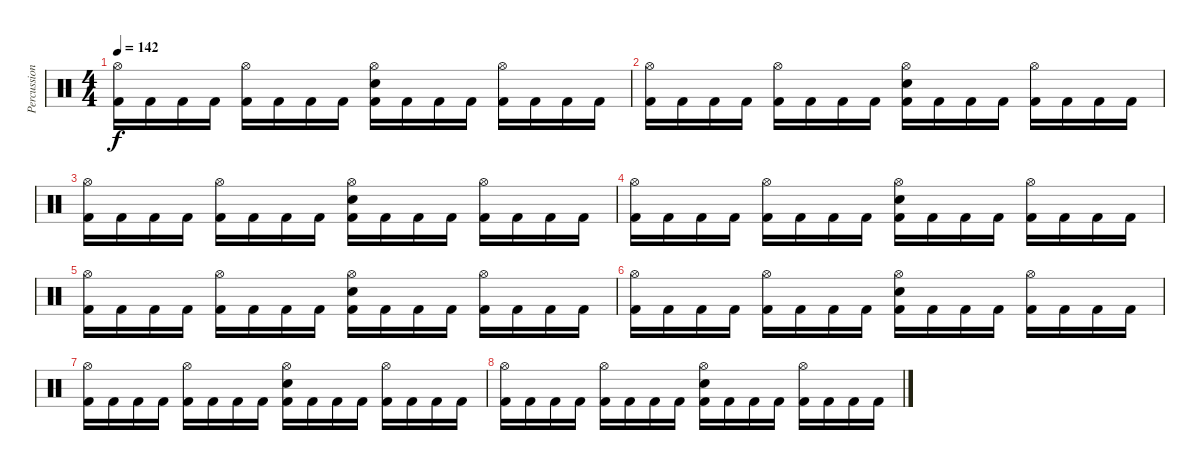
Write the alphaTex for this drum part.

\track ("Percussion" "Percussion") {instrument percussion}
\staff {score}
\articulation defaults
\ts (4 4)
\tempo 142
\clef neutral
\ks c
("Hi-Hat (open)" "Kick (hit) 2").16{dy f} "Kick (hit) 2".16 "Kick (hit) 2".16 "Kick (hit) 2".16 ("Hi-Hat (open)" "Kick (hit) 2").16 "Kick (hit) 2".16 "Kick (hit) 2".16 "Kick (hit) 2".16 ("Hi-Hat (open)" "Electric Snare (hit)" "Kick (hit) 2").16 "Kick (hit) 2".16 "Kick (hit) 2".16 "Kick (hit) 2".16 ("Hi-Hat (open)" "Kick (hit) 2").16 "Kick (hit) 2".16 "Kick (hit) 2".16 "Kick (hit) 2".16 |
("Hi-Hat (open)" "Kick (hit) 2").16 "Kick (hit) 2".16 "Kick (hit) 2".16 "Kick (hit) 2".16 ("Hi-Hat (open)" "Kick (hit) 2").16 "Kick (hit) 2".16 "Kick (hit) 2".16 "Kick (hit) 2".16 ("Hi-Hat (open)" "Electric Snare (hit)" "Kick (hit) 2").16 "Kick (hit) 2".16 "Kick (hit) 2".16 "Kick (hit) 2".16 ("Hi-Hat (open)" "Kick (hit) 2").16 "Kick (hit) 2".16 "Kick (hit) 2".16 "Kick (hit) 2".16 |
("Hi-Hat (open)" "Kick (hit) 2").16 "Kick (hit) 2".16 "Kick (hit) 2".16 "Kick (hit) 2".16 ("Hi-Hat (open)" "Kick (hit) 2").16 "Kick (hit) 2".16 "Kick (hit) 2".16 "Kick (hit) 2".16 ("Hi-Hat (open)" "Electric Snare (hit)" "Kick (hit) 2").16 "Kick (hit) 2".16 "Kick (hit) 2".16 "Kick (hit) 2".16 ("Hi-Hat (open)" "Kick (hit) 2").16 "Kick (hit) 2".16 "Kick (hit) 2".16 "Kick (hit) 2".16 |
("Hi-Hat (open)" "Kick (hit) 2").16 "Kick (hit) 2".16 "Kick (hit) 2".16 "Kick (hit) 2".16 ("Hi-Hat (open)" "Kick (hit) 2").16 "Kick (hit) 2".16 "Kick (hit) 2".16 "Kick (hit) 2".16 ("Hi-Hat (open)" "Electric Snare (hit)" "Kick (hit) 2").16 "Kick (hit) 2".16 "Kick (hit) 2".16 "Kick (hit) 2".16 ("Hi-Hat (open)" "Kick (hit) 2").16 "Kick (hit) 2".16 "Kick (hit) 2".16 "Kick (hit) 2".16 |
("Hi-Hat (open)" "Kick (hit) 2").16 "Kick (hit) 2".16 "Kick (hit) 2".16 "Kick (hit) 2".16 ("Hi-Hat (open)" "Kick (hit) 2").16 "Kick (hit) 2".16 "Kick (hit) 2".16 "Kick (hit) 2".16 ("Hi-Hat (open)" "Electric Snare (hit)" "Kick (hit) 2").16 "Kick (hit) 2".16 "Kick (hit) 2".16 "Kick (hit) 2".16 ("Hi-Hat (open)" "Kick (hit) 2").16 "Kick (hit) 2".16 "Kick (hit) 2".16 "Kick (hit) 2".16 |
("Hi-Hat (open)" "Kick (hit) 2").16 "Kick (hit) 2".16 "Kick (hit) 2".16 "Kick (hit) 2".16 ("Hi-Hat (open)" "Kick (hit) 2").16 "Kick (hit) 2".16 "Kick (hit) 2".16 "Kick (hit) 2".16 ("Hi-Hat (open)" "Electric Snare (hit)" "Kick (hit) 2").16 "Kick (hit) 2".16 "Kick (hit) 2".16 "Kick (hit) 2".16 ("Hi-Hat (open)" "Kick (hit) 2").16 "Kick (hit) 2".16 "Kick (hit) 2".16 "Kick (hit) 2".16 |
("Hi-Hat (open)" "Kick (hit) 2").16 "Kick (hit) 2".16 "Kick (hit) 2".16 "Kick (hit) 2".16 ("Hi-Hat (open)" "Kick (hit) 2").16 "Kick (hit) 2".16 "Kick (hit) 2".16 "Kick (hit) 2".16 ("Hi-Hat (open)" "Electric Snare (hit)" "Kick (hit) 2").16 "Kick (hit) 2".16 "Kick (hit) 2".16 "Kick (hit) 2".16 ("Hi-Hat (open)" "Kick (hit) 2").16 "Kick (hit) 2".16 "Kick (hit) 2".16 "Kick (hit) 2".16 |
("Hi-Hat (open)" "Kick (hit) 2").16 "Kick (hit) 2".16 "Kick (hit) 2".16 "Kick (hit) 2".16 ("Hi-Hat (open)" "Kick (hit) 2").16 "Kick (hit) 2".16 "Kick (hit) 2".16 "Kick (hit) 2".16 ("Hi-Hat (open)" "Electric Snare (hit)" "Kick (hit) 2").16 "Kick (hit) 2".16 "Kick (hit) 2".16 "Kick (hit) 2".16 ("Hi-Hat (open)" "Kick (hit) 2").16 "Kick (hit) 2".16 "Kick (hit) 2".16 "Kick (hit) 2".16
